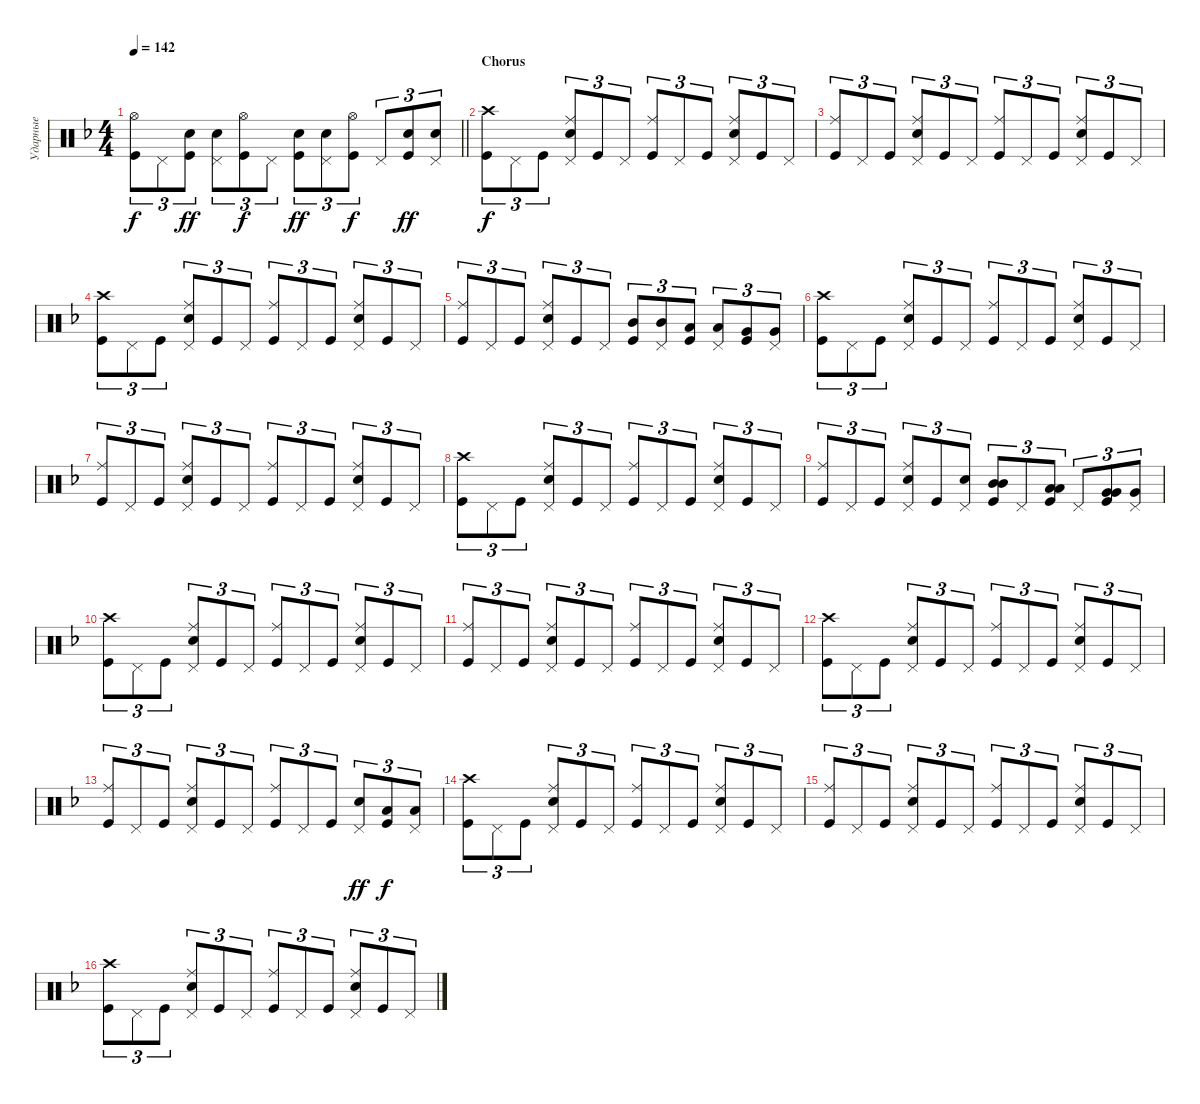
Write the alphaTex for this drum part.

\track ("Ударные" "Ударные") {instrument percussion}
\staff {score}
\articulation defaults
\ts (4 4)
\tempo 142
\clef neutral
\barLineRight lightlight
\ks dminor
("Kick (hit)" "Hi-Hat (open)").8{tu (3 2) dy f} "Pedal Hi-Hat (hit)".8{tu (3 2)} ("Snare (hit) 2" "Kick (hit)").8{tu (3 2) dy ff} ("Snare (hit) 2" "Pedal Hi-Hat (hit)").8{tu (3 2)} ("Kick (hit)" "Hi-Hat (open)").8{tu (3 2) dy f} "Pedal Hi-Hat (hit)".8{tu (3 2)} ("Snare (hit) 2" "Kick (hit)").8{tu (3 2) dy ff} ("Snare (hit) 2" "Pedal Hi-Hat (hit)").8{tu (3 2)} ("Kick (hit)" "Hi-Hat (open)").8{tu (3 2) dy f} "Pedal Hi-Hat (hit)".8{tu (3 2)} ("Snare (hit) 2" "Kick (hit)").8{tu (3 2) dy ff} ("Snare (hit) 2" "Pedal Hi-Hat (hit)").8{tu (3 2)} |
\section ("" "Chorus")
("Kick (hit)" "Crash high (hit)").8{tu (3 2) dy f} "Pedal Hi-Hat (hit)".8{tu (3 2)} "Kick (hit)".8{tu (3 2)} ("Snare (hit) 2" "Ride (middle)" "Pedal Hi-Hat (hit)").8{tu (3 2)} "Kick (hit)".8{tu (3 2)} "Pedal Hi-Hat (hit)".8{tu (3 2)} ("Kick (hit)" "Ride (middle)").8{tu (3 2)} "Pedal Hi-Hat (hit)".8{tu (3 2)} "Kick (hit)".8{tu (3 2)} ("Snare (hit) 2" "Ride (middle)" "Pedal Hi-Hat (hit)").8{tu (3 2)} "Kick (hit)".8{tu (3 2)} "Pedal Hi-Hat (hit)".8{tu (3 2)} |
("Kick (hit)" "Ride (middle)").8{tu (3 2)} "Pedal Hi-Hat (hit)".8{tu (3 2)} "Kick (hit)".8{tu (3 2)} ("Snare (hit) 2" "Ride (middle)" "Pedal Hi-Hat (hit)").8{tu (3 2)} "Kick (hit)".8{tu (3 2)} "Pedal Hi-Hat (hit)".8{tu (3 2)} ("Kick (hit)" "Ride (middle)").8{tu (3 2)} "Pedal Hi-Hat (hit)".8{tu (3 2)} "Kick (hit)".8{tu (3 2)} ("Snare (hit) 2" "Ride (middle)" "Pedal Hi-Hat (hit)").8{tu (3 2)} "Kick (hit)".8{tu (3 2)} "Pedal Hi-Hat (hit)".8{tu (3 2)} |
("Kick (hit)" "Crash high (hit)").8{tu (3 2)} "Pedal Hi-Hat (hit)".8{tu (3 2)} "Kick (hit)".8{tu (3 2)} ("Snare (hit) 2" "Ride (middle)" "Pedal Hi-Hat (hit)").8{tu (3 2)} "Kick (hit)".8{tu (3 2)} "Pedal Hi-Hat (hit)".8{tu (3 2)} ("Kick (hit)" "Ride (middle)").8{tu (3 2)} "Pedal Hi-Hat (hit)".8{tu (3 2)} "Kick (hit)".8{tu (3 2)} ("Snare (hit) 2" "Ride (middle)" "Pedal Hi-Hat (hit)").8{tu (3 2)} "Kick (hit)".8{tu (3 2)} "Pedal Hi-Hat (hit)".8{tu (3 2)} |
("Kick (hit)" "Ride (middle)").8{tu (3 2)} "Pedal Hi-Hat (hit)".8{tu (3 2)} "Kick (hit)".8{tu (3 2)} ("Snare (hit) 2" "Ride (middle)" "Pedal Hi-Hat (hit)").8{tu (3 2)} "Kick (hit)".8{tu (3 2)} "Pedal Hi-Hat (hit)".8{tu (3 2)} ("Kick (hit)" "Mid Tom (hit)").8{tu (3 2)} ("Pedal Hi-Hat (hit)" "Mid Tom (hit)").8{tu (3 2)} ("Low Tom (hit)" "Kick (hit)").8{tu (3 2)} ("Low Tom (hit)" "Pedal Hi-Hat (hit)").8{tu (3 2)} ("Very Low Tom (hit)" "Kick (hit)").8{tu (3 2)} ("Very Low Tom (hit)" "Pedal Hi-Hat (hit)").8{tu (3 2)} |
("Crash high (hit)" "Kick (hit)").8{tu (3 2)} "Pedal Hi-Hat (hit)".8{tu (3 2)} "Kick (hit)".8{tu (3 2)} ("Snare (hit) 2" "Ride (middle)" "Pedal Hi-Hat (hit)").8{tu (3 2)} "Kick (hit)".8{tu (3 2)} "Pedal Hi-Hat (hit)".8{tu (3 2)} ("Kick (hit)" "Ride (middle)").8{tu (3 2)} "Pedal Hi-Hat (hit)".8{tu (3 2)} "Kick (hit)".8{tu (3 2)} ("Snare (hit) 2" "Ride (middle)" "Pedal Hi-Hat (hit)").8{tu (3 2)} "Kick (hit)".8{tu (3 2)} "Pedal Hi-Hat (hit)".8{tu (3 2)} |
("Kick (hit)" "Ride (middle)").8{tu (3 2)} "Pedal Hi-Hat (hit)".8{tu (3 2)} "Kick (hit)".8{tu (3 2)} ("Snare (hit) 2" "Ride (middle)" "Pedal Hi-Hat (hit)").8{tu (3 2)} "Kick (hit)".8{tu (3 2)} "Pedal Hi-Hat (hit)".8{tu (3 2)} ("Kick (hit)" "Ride (middle)").8{tu (3 2)} "Pedal Hi-Hat (hit)".8{tu (3 2)} "Kick (hit)".8{tu (3 2)} ("Snare (hit) 2" "Ride (middle)" "Pedal Hi-Hat (hit)").8{tu (3 2)} "Kick (hit)".8{tu (3 2)} "Pedal Hi-Hat (hit)".8{tu (3 2)} |
("Kick (hit)" "Crash high (hit)").8{tu (3 2)} "Pedal Hi-Hat (hit)".8{tu (3 2)} "Kick (hit)".8{tu (3 2)} ("Snare (hit) 2" "Ride (middle)" "Pedal Hi-Hat (hit)").8{tu (3 2)} "Kick (hit)".8{tu (3 2)} "Pedal Hi-Hat (hit)".8{tu (3 2)} ("Kick (hit)" "Ride (middle)").8{tu (3 2)} "Pedal Hi-Hat (hit)".8{tu (3 2)} "Kick (hit)".8{tu (3 2)} ("Snare (hit) 2" "Ride (middle)" "Pedal Hi-Hat (hit)").8{tu (3 2)} "Kick (hit)".8{tu (3 2)} "Pedal Hi-Hat (hit)".8{tu (3 2)} |
("Kick (hit)" "Ride (middle)").8{tu (3 2)} "Pedal Hi-Hat (hit)".8{tu (3 2)} "Kick (hit)".8{tu (3 2)} ("Snare (hit) 2" "Ride (middle)" "Pedal Hi-Hat (hit)").8{tu (3 2)} "Kick (hit)".8{tu (3 2)} ("Pedal Hi-Hat (hit)" "Snare (hit) 2").8{tu (3 2)} ("Kick (hit)" "Mid Tom (hit)" "Mid Tom (hit)").8{tu (3 2) bd 240} "Pedal Hi-Hat (hit)".8{tu (3 2)} ("Low Tom (hit)" "Kick (hit)" "Low Tom (hit)").8{tu (3 2) bd 240} "Pedal Hi-Hat (hit)".8{tu (3 2)} ("Very Low Tom (hit)" "Kick (hit)" "Very Low Tom (hit)").8{tu (3 2) bd 240} ("Pedal Hi-Hat (hit)" "Very Low Tom (hit)").8{tu (3 2)} |
("Kick (hit)" "Crash high (hit)").8{tu (3 2)} "Pedal Hi-Hat (hit)".8{tu (3 2)} "Kick (hit)".8{tu (3 2)} ("Snare (hit) 2" "Ride (middle)" "Pedal Hi-Hat (hit)").8{tu (3 2)} "Kick (hit)".8{tu (3 2)} "Pedal Hi-Hat (hit)".8{tu (3 2)} ("Kick (hit)" "Ride (middle)").8{tu (3 2)} "Pedal Hi-Hat (hit)".8{tu (3 2)} "Kick (hit)".8{tu (3 2)} ("Snare (hit) 2" "Ride (middle)" "Pedal Hi-Hat (hit)").8{tu (3 2)} "Kick (hit)".8{tu (3 2)} "Pedal Hi-Hat (hit)".8{tu (3 2)} |
("Kick (hit)" "Ride (middle)").8{tu (3 2)} "Pedal Hi-Hat (hit)".8{tu (3 2)} "Kick (hit)".8{tu (3 2)} ("Snare (hit) 2" "Ride (middle)" "Pedal Hi-Hat (hit)").8{tu (3 2)} "Kick (hit)".8{tu (3 2)} "Pedal Hi-Hat (hit)".8{tu (3 2)} ("Kick (hit)" "Ride (middle)").8{tu (3 2)} "Pedal Hi-Hat (hit)".8{tu (3 2)} "Kick (hit)".8{tu (3 2)} ("Snare (hit) 2" "Ride (middle)" "Pedal Hi-Hat (hit)").8{tu (3 2)} "Kick (hit)".8{tu (3 2)} "Pedal Hi-Hat (hit)".8{tu (3 2)} |
("Kick (hit)" "Crash high (hit)").8{tu (3 2)} "Pedal Hi-Hat (hit)".8{tu (3 2)} "Kick (hit)".8{tu (3 2)} ("Snare (hit) 2" "Ride (middle)" "Pedal Hi-Hat (hit)").8{tu (3 2)} "Kick (hit)".8{tu (3 2)} "Pedal Hi-Hat (hit)".8{tu (3 2)} ("Kick (hit)" "Ride (middle)").8{tu (3 2)} "Pedal Hi-Hat (hit)".8{tu (3 2)} "Kick (hit)".8{tu (3 2)} ("Snare (hit) 2" "Ride (middle)" "Pedal Hi-Hat (hit)").8{tu (3 2)} "Kick (hit)".8{tu (3 2)} "Pedal Hi-Hat (hit)".8{tu (3 2)} |
("Kick (hit)" "Ride (middle)").8{tu (3 2)} "Pedal Hi-Hat (hit)".8{tu (3 2)} "Kick (hit)".8{tu (3 2)} ("Snare (hit) 2" "Ride (middle)" "Pedal Hi-Hat (hit)").8{tu (3 2)} "Kick (hit)".8{tu (3 2)} "Pedal Hi-Hat (hit)".8{tu (3 2)} ("Kick (hit)" "Ride (middle)").8{tu (3 2)} "Pedal Hi-Hat (hit)".8{tu (3 2)} "Kick (hit)".8{tu (3 2)} ("Snare (hit) 2" "Pedal Hi-Hat (hit)").8{tu (3 2) dy ff} ("Low Tom (hit)" "Kick (hit)").8{tu (3 2) dy f} ("Low Tom (hit)" "Pedal Hi-Hat (hit)").8{tu (3 2)} |
("Kick (hit)" "Crash high (hit)").8{tu (3 2)} "Pedal Hi-Hat (hit)".8{tu (3 2)} "Kick (hit)".8{tu (3 2)} ("Snare (hit) 2" "Ride (middle)" "Pedal Hi-Hat (hit)").8{tu (3 2)} "Kick (hit)".8{tu (3 2)} "Pedal Hi-Hat (hit)".8{tu (3 2)} ("Kick (hit)" "Ride (middle)").8{tu (3 2)} "Pedal Hi-Hat (hit)".8{tu (3 2)} "Kick (hit)".8{tu (3 2)} ("Snare (hit) 2" "Ride (middle)" "Pedal Hi-Hat (hit)").8{tu (3 2)} "Kick (hit)".8{tu (3 2)} "Pedal Hi-Hat (hit)".8{tu (3 2)} |
("Kick (hit)" "Ride (middle)").8{tu (3 2)} "Pedal Hi-Hat (hit)".8{tu (3 2)} "Kick (hit)".8{tu (3 2)} ("Snare (hit) 2" "Ride (middle)" "Pedal Hi-Hat (hit)").8{tu (3 2)} "Kick (hit)".8{tu (3 2)} "Pedal Hi-Hat (hit)".8{tu (3 2)} ("Kick (hit)" "Ride (middle)").8{tu (3 2)} "Pedal Hi-Hat (hit)".8{tu (3 2)} "Kick (hit)".8{tu (3 2)} ("Snare (hit) 2" "Ride (middle)" "Pedal Hi-Hat (hit)").8{tu (3 2)} "Kick (hit)".8{tu (3 2)} "Pedal Hi-Hat (hit)".8{tu (3 2)} |
("Kick (hit)" "Crash high (hit)").8{tu (3 2)} "Pedal Hi-Hat (hit)".8{tu (3 2)} "Kick (hit)".8{tu (3 2)} ("Snare (hit) 2" "Ride (middle)" "Pedal Hi-Hat (hit)").8{tu (3 2)} "Kick (hit)".8{tu (3 2)} "Pedal Hi-Hat (hit)".8{tu (3 2)} ("Kick (hit)" "Ride (middle)").8{tu (3 2)} "Pedal Hi-Hat (hit)".8{tu (3 2)} "Kick (hit)".8{tu (3 2)} ("Snare (hit) 2" "Ride (middle)" "Pedal Hi-Hat (hit)").8{tu (3 2)} "Kick (hit)".8{tu (3 2)} "Pedal Hi-Hat (hit)".8{tu (3 2)}
